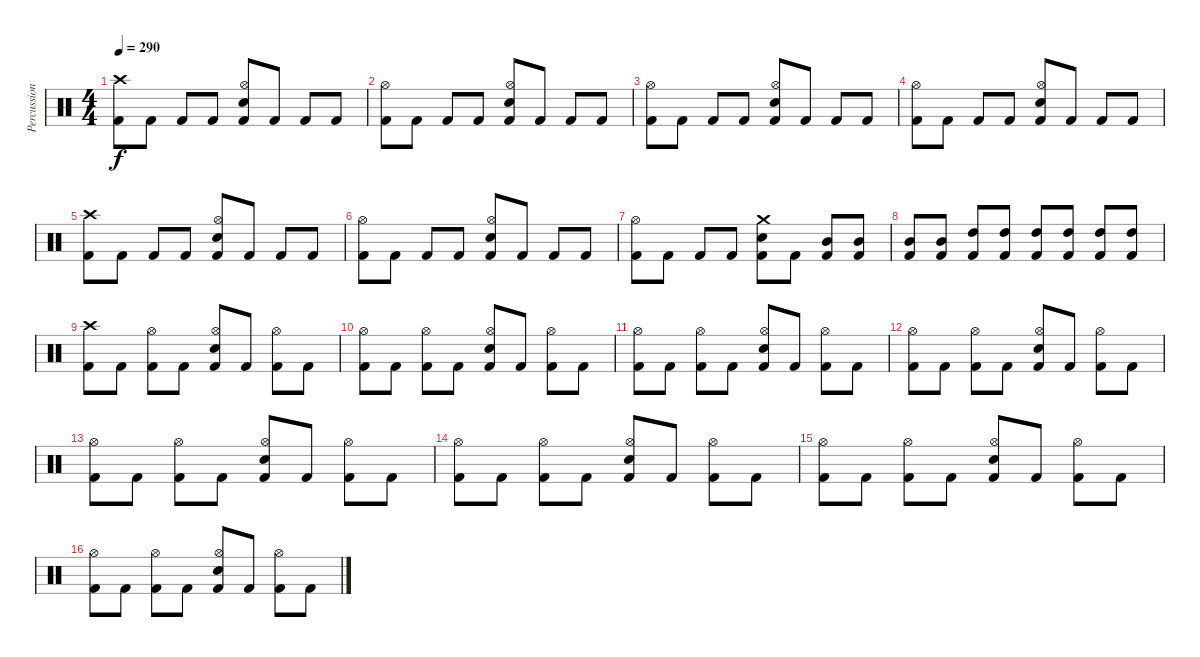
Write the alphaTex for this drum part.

\track ("Percussion" "Percussion") {instrument percussion}
\staff {score}
\articulation defaults
\ts (4 4)
\tempo 290
\clef neutral
\ks c
("Crash high (hit)" "Kick (hit) 2").8{dy f} "Kick (hit) 2".8 "Kick (hit) 2".8 "Kick (hit) 2".8 ("Hi-Hat (open)" "Snare (hit) 2" "Kick (hit) 2").8 "Kick (hit) 2".8 "Kick (hit) 2".8 "Kick (hit) 2".8 |
("Hi-Hat (open)" "Kick (hit) 2").8 "Kick (hit) 2".8 "Kick (hit) 2".8 "Kick (hit) 2".8 ("Hi-Hat (open)" "Snare (hit) 2" "Kick (hit) 2").8 "Kick (hit) 2".8 "Kick (hit) 2".8 "Kick (hit) 2".8 |
("Hi-Hat (open)" "Kick (hit) 2").8 "Kick (hit) 2".8 "Kick (hit) 2".8 "Kick (hit) 2".8 ("Hi-Hat (open)" "Snare (hit) 2" "Kick (hit) 2").8 "Kick (hit) 2".8 "Kick (hit) 2".8 "Kick (hit) 2".8 |
("Hi-Hat (open)" "Kick (hit) 2").8 "Kick (hit) 2".8 "Kick (hit) 2".8 "Kick (hit) 2".8 ("Hi-Hat (open)" "Snare (hit) 2" "Kick (hit) 2").8 "Kick (hit) 2".8 "Kick (hit) 2".8 "Kick (hit) 2".8 |
("Crash high (hit)" "Kick (hit) 2").8 "Kick (hit) 2".8 "Kick (hit) 2".8 "Kick (hit) 2".8 ("Hi-Hat (open)" "Snare (hit) 2" "Kick (hit) 2").8 "Kick (hit) 2".8 "Kick (hit) 2".8 "Kick (hit) 2".8 |
("Hi-Hat (open)" "Kick (hit) 2").8 "Kick (hit) 2".8 "Kick (hit) 2".8 "Kick (hit) 2".8 ("Hi-Hat (open)" "Snare (hit) 2" "Kick (hit) 2").8 "Kick (hit) 2".8 "Kick (hit) 2".8 "Kick (hit) 2".8 |
("Hi-Hat (open)" "Kick (hit) 2").8 "Kick (hit) 2".8 "Kick (hit) 2".8 "Kick (hit) 2".8 ("Crash medium (hit)" "Snare (hit) 2" "Kick (hit) 2").8 "Kick (hit) 2".8 ("Mid Tom (hit)" "Kick (hit) 2").8 ("Mid Tom (hit)" "Kick (hit) 2").8 |
("Mid Tom (hit)" "Kick (hit) 2").8 ("Mid Tom (hit)" "Kick (hit) 2").8 ("High Tom (hit)" "Kick (hit) 2").8 ("High Tom (hit)" "Kick (hit) 2").8 ("High Tom (hit)" "Kick (hit) 2").8 ("High Tom (hit)" "Kick (hit) 2").8 ("High Tom (hit)" "Kick (hit) 2").8 ("High Tom (hit)" "Kick (hit) 2").8 |
("Crash high (hit)" "Kick (hit) 2").8 "Kick (hit) 2".8 ("Hi-Hat (open)" "Kick (hit) 2").8 "Kick (hit) 2".8 ("Hi-Hat (open)" "Snare (hit) 2" "Kick (hit) 2").8 "Kick (hit) 2".8 ("Hi-Hat (open)" "Kick (hit) 2").8 "Kick (hit) 2".8 |
("Hi-Hat (open)" "Kick (hit) 2").8 "Kick (hit) 2".8 ("Hi-Hat (open)" "Kick (hit) 2").8 "Kick (hit) 2".8 ("Hi-Hat (open)" "Snare (hit) 2" "Kick (hit) 2").8 "Kick (hit) 2".8 ("Hi-Hat (open)" "Kick (hit) 2").8 "Kick (hit) 2".8 |
("Hi-Hat (open)" "Kick (hit) 2").8 "Kick (hit) 2".8 ("Hi-Hat (open)" "Kick (hit) 2").8 "Kick (hit) 2".8 ("Hi-Hat (open)" "Snare (hit) 2" "Kick (hit) 2").8 "Kick (hit) 2".8 ("Hi-Hat (open)" "Kick (hit) 2").8 "Kick (hit) 2".8 |
("Hi-Hat (open)" "Kick (hit) 2").8 "Kick (hit) 2".8 ("Hi-Hat (open)" "Kick (hit) 2").8 "Kick (hit) 2".8 ("Hi-Hat (open)" "Snare (hit) 2" "Kick (hit) 2").8 "Kick (hit) 2".8 ("Hi-Hat (open)" "Kick (hit) 2").8 "Kick (hit) 2".8 |
("Hi-Hat (open)" "Kick (hit) 2").8 "Kick (hit) 2".8 ("Hi-Hat (open)" "Kick (hit) 2").8 "Kick (hit) 2".8 ("Hi-Hat (open)" "Snare (hit) 2" "Kick (hit) 2").8 "Kick (hit) 2".8 ("Hi-Hat (open)" "Kick (hit) 2").8 "Kick (hit) 2".8 |
("Hi-Hat (open)" "Kick (hit) 2").8 "Kick (hit) 2".8 ("Hi-Hat (open)" "Kick (hit) 2").8 "Kick (hit) 2".8 ("Hi-Hat (open)" "Snare (hit) 2" "Kick (hit) 2").8 "Kick (hit) 2".8 ("Hi-Hat (open)" "Kick (hit) 2").8 "Kick (hit) 2".8 |
("Hi-Hat (open)" "Kick (hit) 2").8 "Kick (hit) 2".8 ("Hi-Hat (open)" "Kick (hit) 2").8 "Kick (hit) 2".8 ("Hi-Hat (open)" "Snare (hit) 2" "Kick (hit) 2").8 "Kick (hit) 2".8 ("Hi-Hat (open)" "Kick (hit) 2").8 "Kick (hit) 2".8 |
("Hi-Hat (open)" "Kick (hit) 2").8 "Kick (hit) 2".8 ("Hi-Hat (open)" "Kick (hit) 2").8 "Kick (hit) 2".8 ("Hi-Hat (open)" "Snare (hit) 2" "Kick (hit) 2").8 "Kick (hit) 2".8 ("Hi-Hat (open)" "Kick (hit) 2").8 "Kick (hit) 2".8
